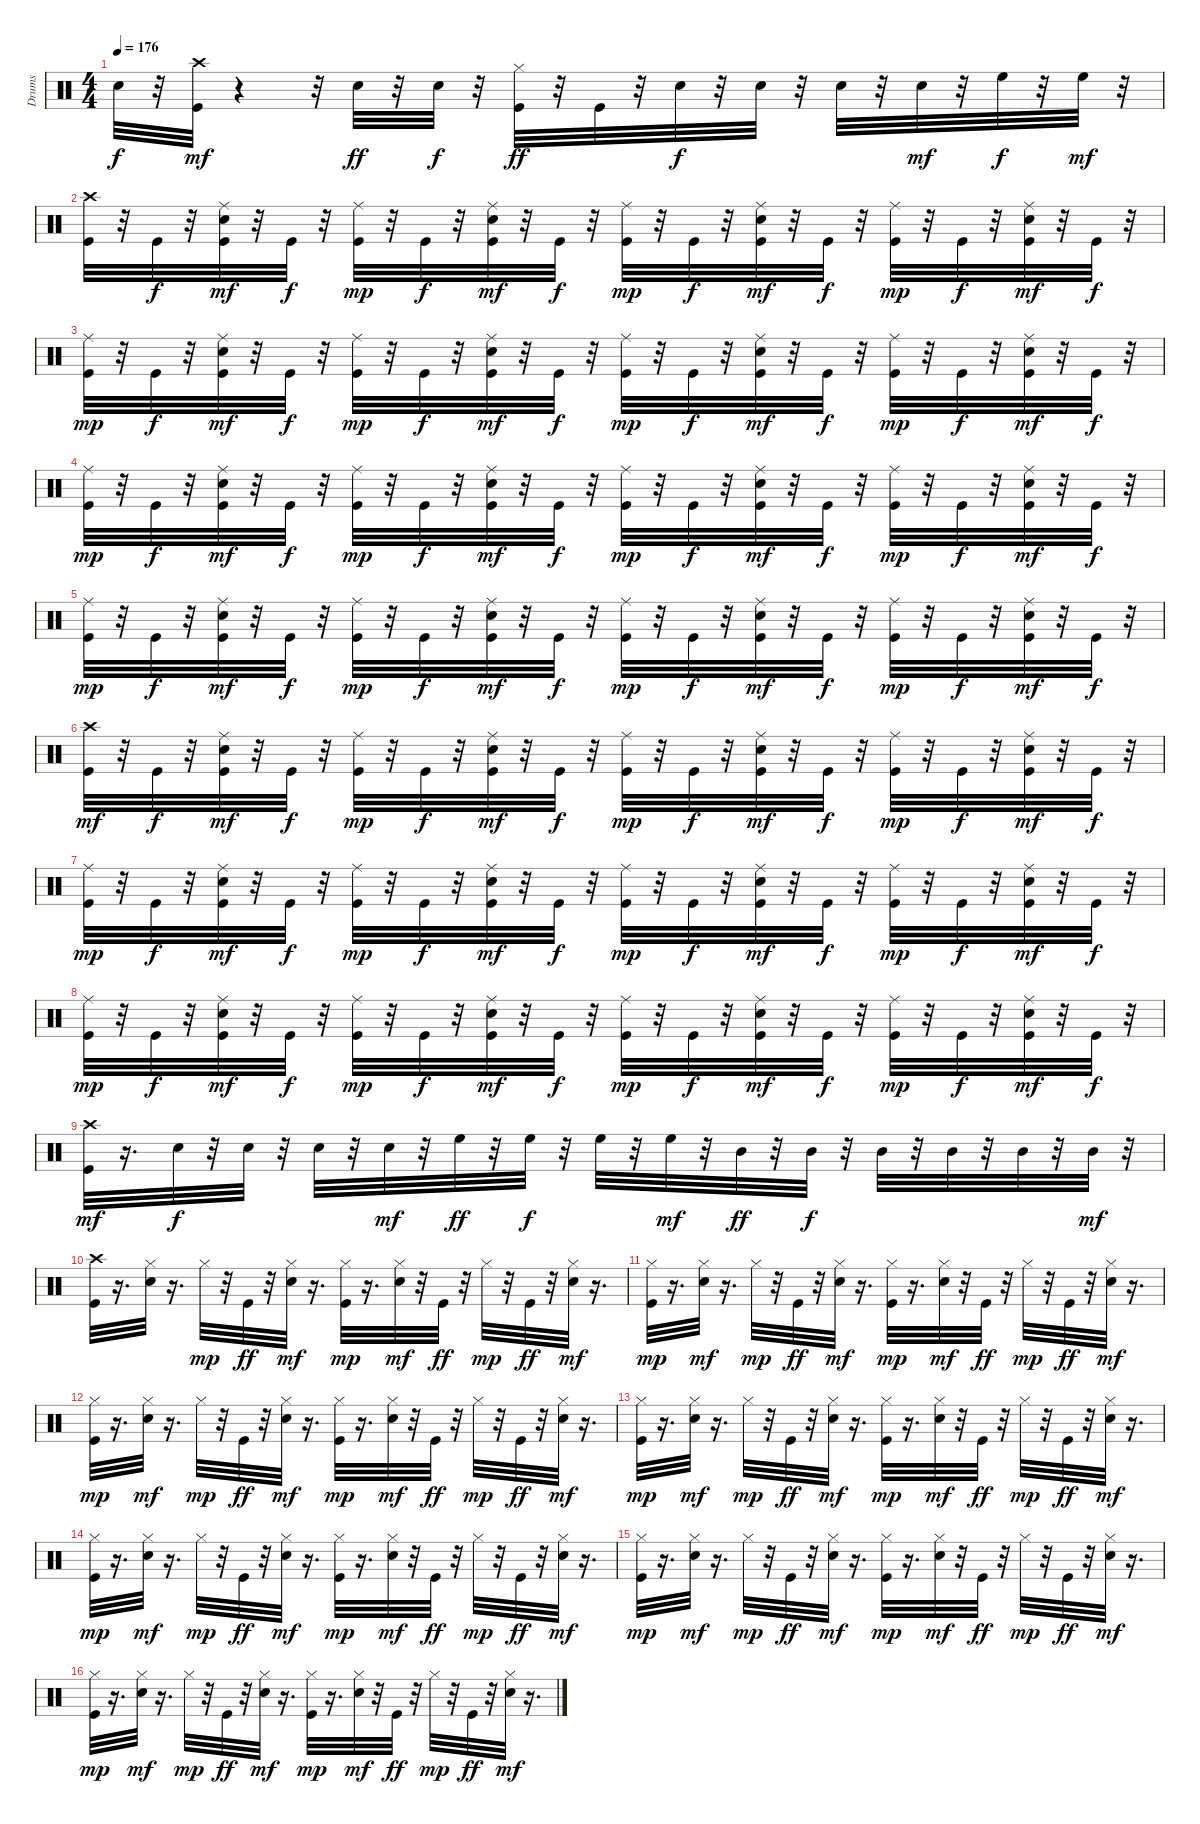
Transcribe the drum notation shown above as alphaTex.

\track ("Drums" "Drums") {instrument percussion}
\staff {score}
\articulation defaults
\ts (4 4)
\tempo 176
\clef neutral
\ks c "Snare (hit) 2".32{dy f}
r.32 ("Kick (hit)" "Crash high (hit)").32{dy mf} r.4 r.32 "Snare (hit) 2".32{dy ff} r.32 "Snare (hit) 2".32{dy f} r.32 ("Hi-Hat (closed)" "Kick (hit)").32{dy ff} r.32 "Kick (hit)".32 r.32 "Snare (hit) 2".32{dy f} r.32 "Snare (hit) 2".32 r.32 "Snare (hit) 2".32 r.32 "Snare (hit) 2".32{dy mf} r.32 "High Floor Tom (hit)".32{dy f} r.32 "High Floor Tom (hit)".32{dy mf} r.32 |
("Kick (hit)" "Crash high (hit)").32 r.32 "Kick (hit)".32{dy f} r.32 ("Kick (hit)" "Snare (hit) 2" "Ride (middle)").32{dy mf} r.32 "Kick (hit)".32{dy f} r.32 ("Kick (hit)" "Ride (middle)").32{dy mp} r.32 "Kick (hit)".32{dy f} r.32 ("Kick (hit)" "Snare (hit) 2" "Ride (middle)").32{dy mf} r.32 "Kick (hit)".32{dy f} r.32 ("Kick (hit)" "Ride (middle)").32{dy mp} r.32 "Kick (hit)".32{dy f} r.32 ("Kick (hit)" "Snare (hit) 2" "Ride (middle)").32{dy mf} r.32 "Kick (hit)".32{dy f} r.32 ("Kick (hit)" "Ride (middle)").32{dy mp} r.32 "Kick (hit)".32{dy f} r.32 ("Kick (hit)" "Snare (hit) 2" "Ride (middle)").32{dy mf} r.32 "Kick (hit)".32{dy f} r.32 |
("Kick (hit)" "Ride (middle)").32{dy mp} r.32 "Kick (hit)".32{dy f} r.32 ("Kick (hit)" "Snare (hit) 2" "Ride (middle)").32{dy mf} r.32 "Kick (hit)".32{dy f} r.32 ("Kick (hit)" "Ride (middle)").32{dy mp} r.32 "Kick (hit)".32{dy f} r.32 ("Kick (hit)" "Snare (hit) 2" "Ride (middle)").32{dy mf} r.32 "Kick (hit)".32{dy f} r.32 ("Kick (hit)" "Ride (middle)").32{dy mp} r.32 "Kick (hit)".32{dy f} r.32 ("Kick (hit)" "Snare (hit) 2" "Ride (middle)").32{dy mf} r.32 "Kick (hit)".32{dy f} r.32 ("Kick (hit)" "Ride (middle)").32{dy mp} r.32 "Kick (hit)".32{dy f} r.32 ("Kick (hit)" "Snare (hit) 2" "Ride (middle)").32{dy mf} r.32 "Kick (hit)".32{dy f} r.32 |
("Kick (hit)" "Ride (middle)").32{dy mp} r.32 "Kick (hit)".32{dy f} r.32 ("Kick (hit)" "Snare (hit) 2" "Ride (middle)").32{dy mf} r.32 "Kick (hit)".32{dy f} r.32 ("Kick (hit)" "Ride (middle)").32{dy mp} r.32 "Kick (hit)".32{dy f} r.32 ("Kick (hit)" "Snare (hit) 2" "Ride (middle)").32{dy mf} r.32 "Kick (hit)".32{dy f} r.32 ("Kick (hit)" "Ride (middle)").32{dy mp} r.32 "Kick (hit)".32{dy f} r.32 ("Kick (hit)" "Snare (hit) 2" "Ride (middle)").32{dy mf} r.32 "Kick (hit)".32{dy f} r.32 ("Kick (hit)" "Ride (middle)").32{dy mp} r.32 "Kick (hit)".32{dy f} r.32 ("Kick (hit)" "Snare (hit) 2" "Ride (middle)").32{dy mf} r.32 "Kick (hit)".32{dy f} r.32 |
("Kick (hit)" "Ride (middle)").32{dy mp} r.32 "Kick (hit)".32{dy f} r.32 ("Kick (hit)" "Snare (hit) 2" "Ride (middle)").32{dy mf} r.32 "Kick (hit)".32{dy f} r.32 ("Kick (hit)" "Ride (middle)").32{dy mp} r.32 "Kick (hit)".32{dy f} r.32 ("Kick (hit)" "Snare (hit) 2" "Ride (middle)").32{dy mf} r.32 "Kick (hit)".32{dy f} r.32 ("Kick (hit)" "Ride (middle)").32{dy mp} r.32 "Kick (hit)".32{dy f} r.32 ("Kick (hit)" "Snare (hit) 2" "Ride (middle)").32{dy mf} r.32 "Kick (hit)".32{dy f} r.32 ("Kick (hit)" "Ride (middle)").32{dy mp} r.32 "Kick (hit)".32{dy f} r.32 ("Kick (hit)" "Snare (hit) 2" "Ride (middle)").32{dy mf} r.32 "Kick (hit)".32{dy f} r.32 |
("Kick (hit)" "Crash high (hit)").32{dy mf} r.32 "Kick (hit)".32{dy f} r.32 ("Kick (hit)" "Snare (hit) 2" "Ride (middle)").32{dy mf} r.32 "Kick (hit)".32{dy f} r.32 ("Kick (hit)" "Ride (middle)").32{dy mp} r.32 "Kick (hit)".32{dy f} r.32 ("Kick (hit)" "Snare (hit) 2" "Ride (middle)").32{dy mf} r.32 "Kick (hit)".32{dy f} r.32 ("Kick (hit)" "Ride (middle)").32{dy mp} r.32 "Kick (hit)".32{dy f} r.32 ("Kick (hit)" "Snare (hit) 2" "Ride (middle)").32{dy mf} r.32 "Kick (hit)".32{dy f} r.32 ("Kick (hit)" "Ride (middle)").32{dy mp} r.32 "Kick (hit)".32{dy f} r.32 ("Kick (hit)" "Snare (hit) 2" "Ride (middle)").32{dy mf} r.32 "Kick (hit)".32{dy f} r.32 |
("Kick (hit)" "Ride (middle)").32{dy mp} r.32 "Kick (hit)".32{dy f} r.32 ("Kick (hit)" "Snare (hit) 2" "Ride (middle)").32{dy mf} r.32 "Kick (hit)".32{dy f} r.32 ("Kick (hit)" "Ride (middle)").32{dy mp} r.32 "Kick (hit)".32{dy f} r.32 ("Kick (hit)" "Snare (hit) 2" "Ride (middle)").32{dy mf} r.32 "Kick (hit)".32{dy f} r.32 ("Kick (hit)" "Ride (middle)").32{dy mp} r.32 "Kick (hit)".32{dy f} r.32 ("Kick (hit)" "Snare (hit) 2" "Ride (middle)").32{dy mf} r.32 "Kick (hit)".32{dy f} r.32 ("Kick (hit)" "Ride (middle)").32{dy mp} r.32 "Kick (hit)".32{dy f} r.32 ("Kick (hit)" "Snare (hit) 2" "Ride (middle)").32{dy mf} r.32 "Kick (hit)".32{dy f} r.32 |
("Kick (hit)" "Ride (middle)").32{dy mp} r.32 "Kick (hit)".32{dy f} r.32 ("Kick (hit)" "Snare (hit) 2" "Ride (middle)").32{dy mf} r.32 "Kick (hit)".32{dy f} r.32 ("Kick (hit)" "Ride (middle)").32{dy mp} r.32 "Kick (hit)".32{dy f} r.32 ("Kick (hit)" "Snare (hit) 2" "Ride (middle)").32{dy mf} r.32 "Kick (hit)".32{dy f} r.32 ("Kick (hit)" "Ride (middle)").32{dy mp} r.32 "Kick (hit)".32{dy f} r.32 ("Kick (hit)" "Snare (hit) 2" "Ride (middle)").32{dy mf} r.32 "Kick (hit)".32{dy f} r.32 ("Kick (hit)" "Ride (middle)").32{dy mp} r.32 "Kick (hit)".32{dy f} r.32 ("Kick (hit)" "Snare (hit) 2" "Ride (middle)").32{dy mf} r.32 "Kick (hit)".32{dy f} r.32 |
("Kick (hit)" "Crash high (hit)").32{dy mf} r.16{d} "Snare (hit) 2".32{dy f} r.32 "Snare (hit) 2".32 r.32 "Snare (hit) 2".32 r.32 "Snare (hit) 2".32{dy mf} r.32 "High Floor Tom (hit)".32{dy ff} r.32 "High Floor Tom (hit)".32{dy f} r.32 "High Floor Tom (hit)".32 r.32 "High Floor Tom (hit)".32{dy mf} r.32 "Mid Tom (hit)".32{dy ff} r.32 "Mid Tom (hit)".32{dy f} r.32 "Mid Tom (hit)".32 r.32 "Mid Tom (hit)".32 r.32 "Mid Tom (hit)".32 r.32 "Mid Tom (hit)".32{dy mf} r.32 |
("Kick (hit)" "Crash high (hit)").32 r.16{d} ("Snare (hit) 2" "Hi-Hat (closed)").32 r.16{d} "Hi-Hat (closed)".32{dy mp} r.32 "Kick (hit)".32{dy ff} r.32 ("Snare (hit) 2" "Hi-Hat (closed)").32{dy mf} r.16{d} ("Kick (hit)" "Hi-Hat (closed)").32{dy mp} r.16{d} ("Snare (hit) 2" "Hi-Hat (closed)").32{dy mf} r.32 "Kick (hit)".32{dy ff} r.32 "Hi-Hat (closed)".32{dy mp} r.32 "Kick (hit)".32{dy ff} r.32 ("Snare (hit) 2" "Hi-Hat (closed)").32{dy mf} r.16{d} |
("Kick (hit)" "Hi-Hat (closed)").32{dy mp} r.16{d} ("Snare (hit) 2" "Hi-Hat (closed)").32{dy mf} r.16{d} "Hi-Hat (closed)".32{dy mp} r.32 "Kick (hit)".32{dy ff} r.32 ("Snare (hit) 2" "Hi-Hat (closed)").32{dy mf} r.16{d} ("Kick (hit)" "Hi-Hat (closed)").32{dy mp} r.16{d} ("Snare (hit) 2" "Hi-Hat (closed)").32{dy mf} r.32 "Kick (hit)".32{dy ff} r.32 "Hi-Hat (closed)".32{dy mp} r.32 "Kick (hit)".32{dy ff} r.32 ("Snare (hit) 2" "Hi-Hat (closed)").32{dy mf} r.16{d} |
("Kick (hit)" "Hi-Hat (closed)").32{dy mp} r.16{d} ("Snare (hit) 2" "Hi-Hat (closed)").32{dy mf} r.16{d} "Hi-Hat (closed)".32{dy mp} r.32 "Kick (hit)".32{dy ff} r.32 ("Snare (hit) 2" "Hi-Hat (closed)").32{dy mf} r.16{d} ("Kick (hit)" "Hi-Hat (closed)").32{dy mp} r.16{d} ("Snare (hit) 2" "Hi-Hat (closed)").32{dy mf} r.32 "Kick (hit)".32{dy ff} r.32 "Hi-Hat (closed)".32{dy mp} r.32 "Kick (hit)".32{dy ff} r.32 ("Snare (hit) 2" "Hi-Hat (closed)").32{dy mf} r.16{d} |
("Kick (hit)" "Hi-Hat (closed)").32{dy mp} r.16{d} ("Snare (hit) 2" "Hi-Hat (closed)").32{dy mf} r.16{d} "Hi-Hat (closed)".32{dy mp} r.32 "Kick (hit)".32{dy ff} r.32 ("Snare (hit) 2" "Hi-Hat (closed)").32{dy mf} r.16{d} ("Kick (hit)" "Hi-Hat (closed)").32{dy mp} r.16{d} ("Snare (hit) 2" "Hi-Hat (closed)").32{dy mf} r.32 "Kick (hit)".32{dy ff} r.32 "Hi-Hat (closed)".32{dy mp} r.32 "Kick (hit)".32{dy ff} r.32 ("Snare (hit) 2" "Hi-Hat (closed)").32{dy mf} r.16{d} |
("Kick (hit)" "Hi-Hat (closed)").32{dy mp} r.16{d} ("Snare (hit) 2" "Hi-Hat (closed)").32{dy mf} r.16{d} "Hi-Hat (closed)".32{dy mp} r.32 "Kick (hit)".32{dy ff} r.32 ("Snare (hit) 2" "Hi-Hat (closed)").32{dy mf} r.16{d} ("Kick (hit)" "Hi-Hat (closed)").32{dy mp} r.16{d} ("Snare (hit) 2" "Hi-Hat (closed)").32{dy mf} r.32 "Kick (hit)".32{dy ff} r.32 "Hi-Hat (closed)".32{dy mp} r.32 "Kick (hit)".32{dy ff} r.32 ("Snare (hit) 2" "Hi-Hat (closed)").32{dy mf} r.16{d} |
("Kick (hit)" "Hi-Hat (closed)").32{dy mp} r.16{d} ("Snare (hit) 2" "Hi-Hat (closed)").32{dy mf} r.16{d} "Hi-Hat (closed)".32{dy mp} r.32 "Kick (hit)".32{dy ff} r.32 ("Snare (hit) 2" "Hi-Hat (closed)").32{dy mf} r.16{d} ("Kick (hit)" "Hi-Hat (closed)").32{dy mp} r.16{d} ("Snare (hit) 2" "Hi-Hat (closed)").32{dy mf} r.32 "Kick (hit)".32{dy ff} r.32 "Hi-Hat (closed)".32{dy mp} r.32 "Kick (hit)".32{dy ff} r.32 ("Snare (hit) 2" "Hi-Hat (closed)").32{dy mf} r.16{d} |
("Kick (hit)" "Hi-Hat (closed)").32{dy mp} r.16{d} ("Snare (hit) 2" "Hi-Hat (closed)").32{dy mf} r.16{d} "Hi-Hat (closed)".32{dy mp} r.32 "Kick (hit)".32{dy ff} r.32 ("Snare (hit) 2" "Hi-Hat (closed)").32{dy mf} r.16{d} ("Kick (hit)" "Hi-Hat (closed)").32{dy mp} r.16{d} ("Snare (hit) 2" "Hi-Hat (closed)").32{dy mf} r.32 "Kick (hit)".32{dy ff} r.32 "Hi-Hat (closed)".32{dy mp} r.32 "Kick (hit)".32{dy ff} r.32 ("Snare (hit) 2" "Hi-Hat (closed)").32{dy mf} r.16{d}
